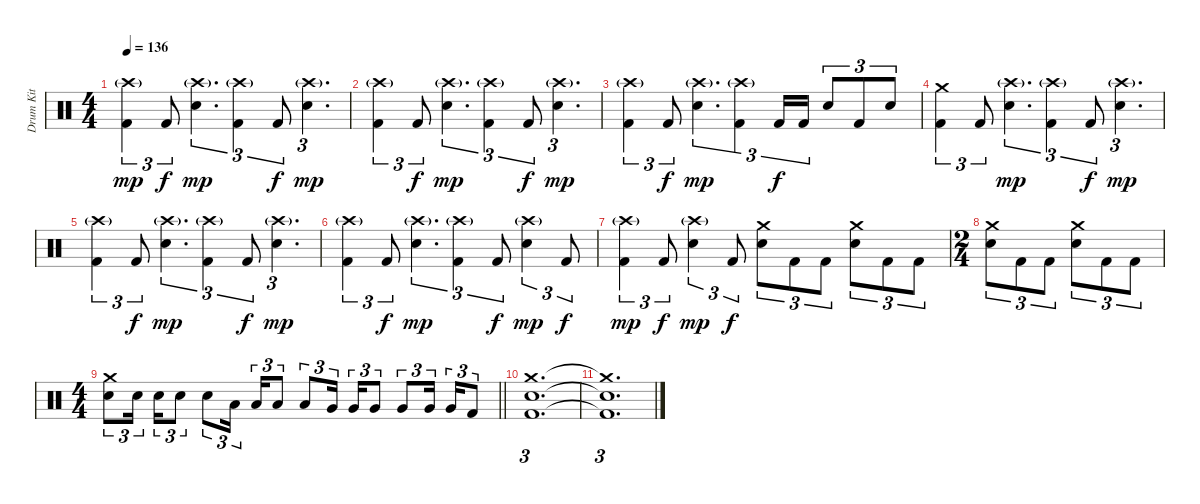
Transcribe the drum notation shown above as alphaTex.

\track ("Drum Kit" "Drum Kit") {instrument percussion}
\staff {score}
\articulation defaults
\ts (4 4)
\tempo 136
\clef neutral
\ks c
("Crash high (hit)"{g} "Kick (hit) 2").4{tu (3 2) dy mp} "Kick (hit) 2".8{tu (3 2) dy f} ("Crash high (hit)"{g} "Electric Snare (hit)").4{d tu (3 2) dy mp} ("Crash high (hit)"{g} "Kick (hit) 2").4{tu (3 2)} "Kick (hit) 2".8{tu (3 2) dy f} ("Crash high (hit)"{g} "Electric Snare (hit)").4{d tu (3 2) dy mp} |
("Crash high (hit)"{g} "Kick (hit) 2").4{tu (3 2)} "Kick (hit) 2".8{tu (3 2) dy f} ("Crash high (hit)"{g} "Electric Snare (hit)").4{d tu (3 2) dy mp} ("Crash high (hit)"{g} "Kick (hit) 2").4{tu (3 2)} "Kick (hit) 2".8{tu (3 2) dy f} ("Crash high (hit)"{g} "Electric Snare (hit)").4{d tu (3 2) dy mp} |
("Crash high (hit)"{g} "Kick (hit) 2").4{tu (3 2)} "Kick (hit) 2".8{tu (3 2) dy f} ("Crash high (hit)"{g} "Electric Snare (hit)").4{d tu (3 2) dy mp} ("Crash high (hit)"{g} "Kick (hit) 2").4{tu (3 2)} "Kick (hit) 2".16{tu (3 2) dy f} "Kick (hit) 2".16{tu (3 2)} "Electric Snare (hit)".8{tu (3 2)} "Kick (hit) 2".8{tu (3 2)} "Electric Snare (hit)".8{tu (3 2)} |
("Crash medium (hit)" "Kick (hit) 2").4{tu (3 2)} "Kick (hit) 2".8{tu (3 2)} ("Crash high (hit)"{g} "Electric Snare (hit)").4{d tu (3 2) dy mp} ("Crash high (hit)"{g} "Kick (hit) 2").4{tu (3 2)} "Kick (hit) 2".8{tu (3 2) dy f} ("Crash high (hit)"{g} "Electric Snare (hit)").4{d tu (3 2) dy mp} |
("Crash high (hit)"{g} "Kick (hit) 2").4{tu (3 2)} "Kick (hit) 2".8{tu (3 2) dy f} ("Crash high (hit)"{g} "Electric Snare (hit)").4{d tu (3 2) dy mp} ("Crash high (hit)"{g} "Kick (hit) 2").4{tu (3 2)} "Kick (hit) 2".8{tu (3 2) dy f} ("Crash high (hit)"{g} "Electric Snare (hit)").4{d tu (3 2) dy mp} |
("Crash high (hit)"{g} "Kick (hit) 2").4{tu (3 2)} "Kick (hit) 2".8{tu (3 2) dy f} ("Crash high (hit)"{g} "Electric Snare (hit)").4{d tu (3 2) dy mp} ("Crash high (hit)"{g} "Kick (hit) 2").4{tu (3 2)} "Kick (hit) 2".8{tu (3 2) dy f} ("Crash high (hit)"{g} "Electric Snare (hit)").4{tu (3 2) dy mp} "Kick (hit) 2".8{tu (3 2) dy f} |
("Crash high (hit)"{g} "Kick (hit) 2").4{tu (3 2) dy mp} "Kick (hit) 2".8{tu (3 2) dy f} ("Crash high (hit)"{g} "Electric Snare (hit)").4{tu (3 2) dy mp} "Kick (hit) 2".8{tu (3 2) dy f} ("Crash medium (hit)" "Electric Snare (hit)").8{tu (3 2)} "Kick (hit) 2".8{tu (3 2)} "Kick (hit) 2".8{tu (3 2)} ("Crash medium (hit)" "Electric Snare (hit)").8{tu (3 2)} "Kick (hit) 2".8{tu (3 2)} "Kick (hit) 2".8{tu (3 2)} |
\ts (2 4)
("Crash medium (hit)" "Electric Snare (hit)").8{tu (3 2)} "Kick (hit) 2".8{tu (3 2)} "Kick (hit) 2".8{tu (3 2)} ("Crash medium (hit)" "Electric Snare (hit)").8{tu (3 2)} "Kick (hit) 2".8{tu (3 2)} "Kick (hit) 2".8{tu (3 2)} |
\ts (4 4)
\barLineRight lightlight
("Crash medium (hit)" "Electric Snare (hit)").8{tu (3 2)} "Electric Snare (hit)".16{tu (3 2) beam splitsecondary} "Electric Snare (hit)".16{tu (3 2)} "Electric Snare (hit)".8{tu (3 2)} "Electric Snare (hit)".8{tu (3 2)} "Low Tom (hit)".16{tu (3 2) beam splitsecondary} "Low Tom (hit)".16{tu (3 2)} "Low Tom (hit)".8{tu (3 2)} "Low Tom (hit)".8{tu (3 2)} "Very Low Tom (hit)".16{tu (3 2) beam splitsecondary} "Very Low Tom (hit)".16{tu (3 2)} "Very Low Tom (hit)".8{tu (3 2)} "Very Low Tom (hit)".8{tu (3 2)} "Very Low Tom (hit)".16{tu (3 2) beam splitsecondary} "Very Low Tom (hit)".16{tu (3 2)} "Kick (hit) 2".8{tu (3 2)} |
("Crash medium (hit)" "Electric Snare (hit)" "Kick (hit) 2").1{d tu (3 2)} |
("Crash medium (hit)"{t} "Electric Snare (hit)"{t} "Kick (hit) 2"{t}).1{d tu (3 2)}
